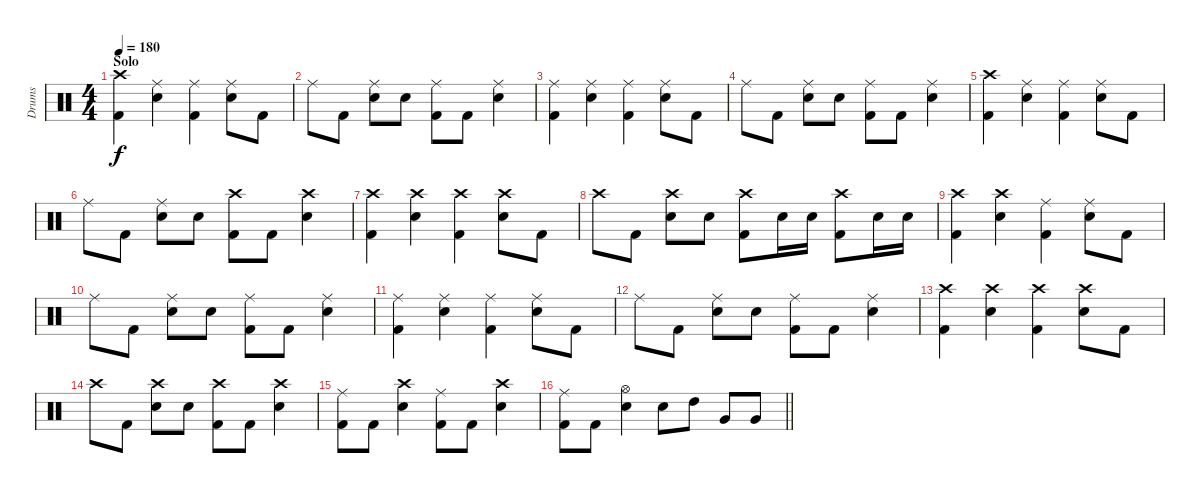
\track ("Drums" "Drums") {instrument percussion}
\staff {score}
\articulation defaults
\ts (4 4)
\section ("" "Solo")
\tempo 180
\clef neutral
\ks c
("Crash high (hit)" "Kick (hit) 2").4{dy f} ("Ride (middle)" "Snare (hit) 2").4 ("Ride (middle)" "Kick (hit) 2").4 ("Ride (middle)" "Snare (hit) 2").8 "Kick (hit) 2".8 |
"Ride (middle)".8 "Kick (hit) 2".8 ("Ride (middle)" "Snare (hit) 2").8 "Snare (hit) 2".8 ("Ride (middle)" "Kick (hit) 2").8 "Kick (hit) 2".8 ("Ride (middle)" "Snare (hit) 2").4 |
("Ride (middle)" "Kick (hit) 2").4 ("Ride (middle)" "Snare (hit) 2").4 ("Ride (middle)" "Kick (hit) 2").4 ("Ride (middle)" "Snare (hit) 2").8 "Kick (hit) 2".8 |
"Ride (middle)".8 "Kick (hit) 2".8 ("Ride (middle)" "Snare (hit) 2").8 "Snare (hit) 2".8 ("Ride (middle)" "Kick (hit) 2").8 "Kick (hit) 2".8 ("Ride (middle)" "Snare (hit) 2").4 |
("Crash high (hit)" "Kick (hit) 2").4 ("Ride (middle)" "Snare (hit) 2").4 ("Ride (middle)" "Kick (hit) 2").4 ("Ride (middle)" "Snare (hit) 2").8 "Kick (hit) 2".8 |
"Ride (middle)".8 "Kick (hit) 2".8 ("Ride (middle)" "Snare (hit) 2").8 "Snare (hit) 2".8 ("Crash high (hit)" "Kick (hit) 2").8 "Kick (hit) 2".8 ("Crash high (hit)" "Snare (hit) 2").4 |
("Crash high (hit)" "Kick (hit) 2").4 ("Crash high (hit)" "Snare (hit) 2").4 ("Crash high (hit)" "Kick (hit) 2").4 ("Crash high (hit)" "Snare (hit) 2").8 "Kick (hit) 2".8 |
"Crash high (hit)".8 "Kick (hit) 2".8 ("Crash high (hit)" "Snare (hit) 2").8 "Snare (hit) 2".8 ("Crash high (hit)" "Kick (hit) 2").8 "Snare (hit) 2".16 "Snare (hit) 2".16 ("Crash high (hit)" "Kick (hit) 2").8 "Snare (hit) 2".16 "Snare (hit) 2".16 |
("Crash high (hit)" "Kick (hit) 2").4 ("Crash high (hit)" "Snare (hit) 2").4 ("Ride (middle)" "Kick (hit) 2").4 ("Ride (middle)" "Snare (hit) 2").8 "Kick (hit) 2".8 |
"Ride (middle)".8 "Kick (hit) 2".8 ("Ride (middle)" "Snare (hit) 2").8 "Snare (hit) 2".8 ("Ride (middle)" "Kick (hit) 2").8 "Kick (hit) 2".8 ("Ride (middle)" "Snare (hit) 2").4 |
("Ride (middle)" "Kick (hit) 2").4 ("Ride (middle)" "Snare (hit) 2").4 ("Ride (middle)" "Kick (hit) 2").4 ("Ride (middle)" "Snare (hit) 2").8 "Kick (hit) 2".8 |
"Ride (middle)".8 "Kick (hit) 2".8 ("Ride (middle)" "Snare (hit) 2").8 "Snare (hit) 2".8 ("Ride (middle)" "Kick (hit) 2").8 "Kick (hit) 2".8 ("Ride (middle)" "Snare (hit) 2").4 |
("Crash high (hit)" "Kick (hit) 2").4 ("Crash high (hit)" "Snare (hit) 2").4 ("Crash high (hit)" "Kick (hit) 2").4 ("Crash high (hit)" "Snare (hit) 2").8 "Kick (hit) 2".8 |
"Crash high (hit)".8 "Kick (hit) 2".8 ("Crash high (hit)" "Snare (hit) 2").8 "Snare (hit) 2".8 ("Crash high (hit)" "Kick (hit) 2").8 "Kick (hit) 2".8 ("Crash high (hit)" "Snare (hit) 2").4 |
("Ride (middle)" "Kick (hit) 2").8 "Kick (hit) 2".8 ("Crash high (hit)" "Snare (hit) 2").4 ("Ride (middle)" "Kick (hit) 2").8 "Kick (hit) 2".8 ("Crash high (hit)" "Snare (hit) 2").4 |
\barLineRight lightlight
("Ride (middle)" "Kick (hit) 2").8 "Kick (hit) 2".8 ("Hi-Hat (open)" "Snare (hit) 2").4 "Snare (hit) 2".8 "High Tom (hit)".8 "Very Low Tom (hit)".8 "Very Low Tom (hit)".8
